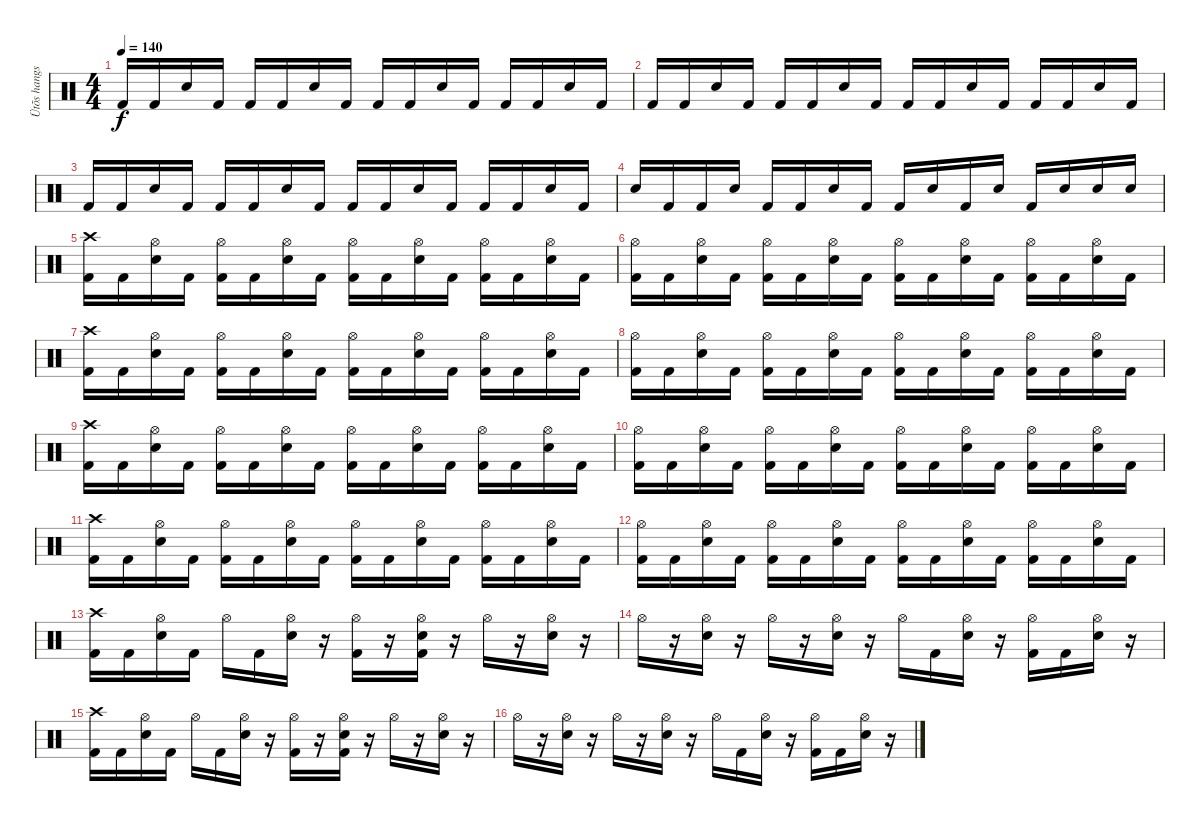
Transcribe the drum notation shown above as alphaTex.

\track ("Ütõs hangszer" "Ütõs hangs") {instrument percussion}
\staff {score}
\articulation defaults
\ts (4 4)
\tempo 140
\clef neutral
\ks c "Kick (hit) 2".16{dy f} "Kick (hit) 2".16 "Snare (hit) 2".16 "Kick (hit) 2".16 "Kick (hit) 2".16 "Kick (hit) 2".16 "Snare (hit) 2".16 "Kick (hit) 2".16 "Kick (hit) 2".16 "Kick (hit) 2".16 "Snare (hit) 2".16 "Kick (hit) 2".16 "Kick (hit) 2".16 "Kick (hit) 2".16 "Snare (hit) 2".16 "Kick (hit) 2".16
|
"Kick (hit) 2".16 "Kick (hit) 2".16 "Snare (hit) 2".16 "Kick (hit) 2".16 "Kick (hit) 2".16 "Kick (hit) 2".16 "Snare (hit) 2".16 "Kick (hit) 2".16 "Kick (hit) 2".16 "Kick (hit) 2".16 "Snare (hit) 2".16 "Kick (hit) 2".16 "Kick (hit) 2".16 "Kick (hit) 2".16 "Snare (hit) 2".16 "Kick (hit) 2".16 |
"Kick (hit) 2".16 "Kick (hit) 2".16 "Snare (hit) 2".16 "Kick (hit) 2".16 "Kick (hit) 2".16 "Kick (hit) 2".16 "Snare (hit) 2".16 "Kick (hit) 2".16 "Kick (hit) 2".16 "Kick (hit) 2".16 "Snare (hit) 2".16 "Kick (hit) 2".16 "Kick (hit) 2".16 "Kick (hit) 2".16 "Snare (hit) 2".16 "Kick (hit) 2".16 |
"Snare (hit) 2".16 "Kick (hit) 2".16 "Kick (hit) 2".16 "Snare (hit) 2".16 "Kick (hit) 2".16 "Kick (hit) 2".16 "Snare (hit) 2".16 "Kick (hit) 2".16 "Kick (hit) 2".16 "Snare (hit) 2".16 "Kick (hit) 2".16 "Snare (hit) 2".16 "Kick (hit) 2".16 "Snare (hit) 2".16 "Snare (hit) 2".16 "Snare (hit) 2".16 |
("Crash high (hit)" "Kick (hit) 2").16 "Kick (hit) 2".16 ("Hi-Hat (open)" "Snare (hit) 2").16 "Kick (hit) 2".16 ("Hi-Hat (open)" "Kick (hit) 2").16 "Kick (hit) 2".16 ("Hi-Hat (open)" "Snare (hit) 2").16 "Kick (hit) 2".16 ("Hi-Hat (open)" "Kick (hit) 2").16 "Kick (hit) 2".16 ("Hi-Hat (open)" "Snare (hit) 2").16 "Kick (hit) 2".16 ("Hi-Hat (open)" "Kick (hit) 2").16 "Kick (hit) 2".16 ("Hi-Hat (open)" "Snare (hit) 2").16 "Kick (hit) 2".16 |
("Hi-Hat (open)" "Kick (hit) 2").16 "Kick (hit) 2".16 ("Hi-Hat (open)" "Snare (hit) 2").16 "Kick (hit) 2".16 ("Hi-Hat (open)" "Kick (hit) 2").16 "Kick (hit) 2".16 ("Hi-Hat (open)" "Snare (hit) 2").16 "Kick (hit) 2".16 ("Hi-Hat (open)" "Kick (hit) 2").16 "Kick (hit) 2".16 ("Hi-Hat (open)" "Snare (hit) 2").16 "Kick (hit) 2".16 ("Hi-Hat (open)" "Kick (hit) 2").16 "Kick (hit) 2".16 ("Hi-Hat (open)" "Snare (hit) 2").16 "Kick (hit) 2".16 |
("Crash high (hit)" "Kick (hit) 2").16 "Kick (hit) 2".16 ("Hi-Hat (open)" "Snare (hit) 2").16 "Kick (hit) 2".16 ("Hi-Hat (open)" "Kick (hit) 2").16 "Kick (hit) 2".16 ("Hi-Hat (open)" "Snare (hit) 2").16 "Kick (hit) 2".16 ("Hi-Hat (open)" "Kick (hit) 2").16 "Kick (hit) 2".16 ("Hi-Hat (open)" "Snare (hit) 2").16 "Kick (hit) 2".16 ("Hi-Hat (open)" "Kick (hit) 2").16 "Kick (hit) 2".16 ("Hi-Hat (open)" "Snare (hit) 2").16 "Kick (hit) 2".16 |
("Hi-Hat (open)" "Kick (hit) 2").16 "Kick (hit) 2".16 ("Hi-Hat (open)" "Snare (hit) 2").16 "Kick (hit) 2".16 ("Hi-Hat (open)" "Kick (hit) 2").16 "Kick (hit) 2".16 ("Hi-Hat (open)" "Snare (hit) 2").16 "Kick (hit) 2".16 ("Hi-Hat (open)" "Kick (hit) 2").16 "Kick (hit) 2".16 ("Hi-Hat (open)" "Snare (hit) 2").16 "Kick (hit) 2".16 ("Hi-Hat (open)" "Kick (hit) 2").16 "Kick (hit) 2".16 ("Hi-Hat (open)" "Snare (hit) 2").16 "Kick (hit) 2".16 |
("Crash high (hit)" "Kick (hit) 2").16 "Kick (hit) 2".16 ("Hi-Hat (open)" "Snare (hit) 2").16 "Kick (hit) 2".16 ("Hi-Hat (open)" "Kick (hit) 2").16 "Kick (hit) 2".16 ("Hi-Hat (open)" "Snare (hit) 2").16 "Kick (hit) 2".16 ("Hi-Hat (open)" "Kick (hit) 2").16 "Kick (hit) 2".16 ("Hi-Hat (open)" "Snare (hit) 2").16 "Kick (hit) 2".16 ("Hi-Hat (open)" "Kick (hit) 2").16 "Kick (hit) 2".16 ("Hi-Hat (open)" "Snare (hit) 2").16 "Kick (hit) 2".16 |
("Hi-Hat (open)" "Kick (hit) 2").16 "Kick (hit) 2".16 ("Hi-Hat (open)" "Snare (hit) 2").16 "Kick (hit) 2".16 ("Hi-Hat (open)" "Kick (hit) 2").16 "Kick (hit) 2".16 ("Hi-Hat (open)" "Snare (hit) 2").16 "Kick (hit) 2".16 ("Hi-Hat (open)" "Kick (hit) 2").16 "Kick (hit) 2".16 ("Hi-Hat (open)" "Snare (hit) 2").16 "Kick (hit) 2".16 ("Hi-Hat (open)" "Kick (hit) 2").16 "Kick (hit) 2".16 ("Hi-Hat (open)" "Snare (hit) 2").16 "Kick (hit) 2".16 |
("Crash high (hit)" "Kick (hit) 2").16 "Kick (hit) 2".16 ("Hi-Hat (open)" "Snare (hit) 2").16 "Kick (hit) 2".16 ("Hi-Hat (open)" "Kick (hit) 2").16 "Kick (hit) 2".16 ("Hi-Hat (open)" "Snare (hit) 2").16 "Kick (hit) 2".16 ("Hi-Hat (open)" "Kick (hit) 2").16 "Kick (hit) 2".16 ("Hi-Hat (open)" "Snare (hit) 2").16 "Kick (hit) 2".16 ("Hi-Hat (open)" "Kick (hit) 2").16 "Kick (hit) 2".16 ("Hi-Hat (open)" "Snare (hit) 2").16 "Kick (hit) 2".16 |
("Hi-Hat (open)" "Kick (hit) 2").16 "Kick (hit) 2".16 ("Hi-Hat (open)" "Snare (hit) 2").16 "Kick (hit) 2".16 ("Hi-Hat (open)" "Kick (hit) 2").16 "Kick (hit) 2".16 ("Hi-Hat (open)" "Snare (hit) 2").16 "Kick (hit) 2".16 ("Hi-Hat (open)" "Kick (hit) 2").16 "Kick (hit) 2".16 ("Hi-Hat (open)" "Snare (hit) 2").16 "Kick (hit) 2".16 ("Hi-Hat (open)" "Kick (hit) 2").16 "Kick (hit) 2".16 ("Hi-Hat (open)" "Snare (hit) 2").16 "Kick (hit) 2".16 |
("Crash high (hit)" "Kick (hit) 2").16 "Kick (hit) 2".16 ("Hi-Hat (open)" "Snare (hit) 2").16 "Kick (hit) 2".16 "Hi-Hat (open)".16 "Kick (hit) 2".16 ("Hi-Hat (open)" "Snare (hit) 2").16 r.16 ("Hi-Hat (open)" "Kick (hit) 2").16 r.16 ("Hi-Hat (open)" "Snare (hit) 2" "Kick (hit) 2").16 r.16 "Hi-Hat (open)".16 r.16 ("Hi-Hat (open)" "Snare (hit) 2").16 r.16 |
"Hi-Hat (open)".16 r.16 ("Hi-Hat (open)" "Snare (hit) 2").16 r.16 "Hi-Hat (open)".16 r.16 ("Hi-Hat (open)" "Snare (hit) 2").16 r.16 "Hi-Hat (open)".16 "Kick (hit) 2".16 ("Hi-Hat (open)" "Snare (hit) 2").16 r.16 ("Hi-Hat (open)" "Kick (hit) 2").16 "Kick (hit) 2".16 ("Hi-Hat (open)" "Snare (hit) 2").16 r.16 |
("Crash high (hit)" "Kick (hit) 2").16 "Kick (hit) 2".16 ("Hi-Hat (open)" "Snare (hit) 2").16 "Kick (hit) 2".16 "Hi-Hat (open)".16 "Kick (hit) 2".16 ("Hi-Hat (open)" "Snare (hit) 2").16 r.16 ("Hi-Hat (open)" "Kick (hit) 2").16 r.16 ("Hi-Hat (open)" "Snare (hit) 2" "Kick (hit) 2").16 r.16 "Hi-Hat (open)".16 r.16 ("Hi-Hat (open)" "Snare (hit) 2").16 r.16 |
"Hi-Hat (open)".16 r.16 ("Hi-Hat (open)" "Snare (hit) 2").16 r.16 "Hi-Hat (open)".16 r.16 ("Hi-Hat (open)" "Snare (hit) 2").16 r.16 "Hi-Hat (open)".16 "Kick (hit) 2".16 ("Hi-Hat (open)" "Snare (hit) 2").16 r.16 ("Hi-Hat (open)" "Kick (hit) 2").16 "Kick (hit) 2".16 ("Hi-Hat (open)" "Snare (hit) 2").16 r.16
